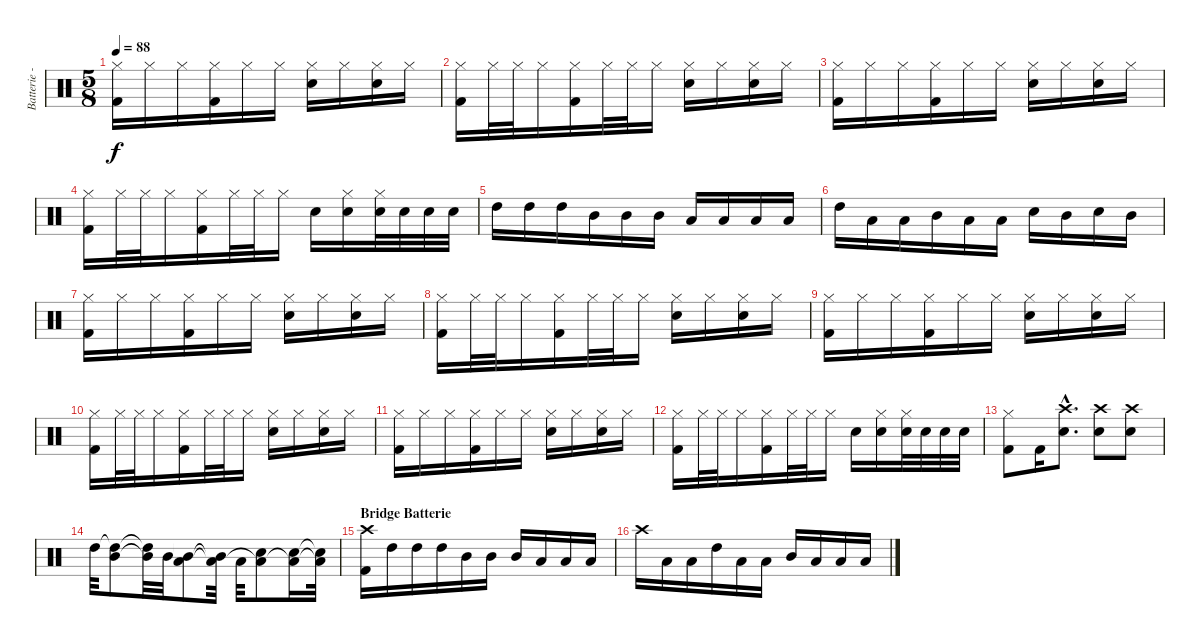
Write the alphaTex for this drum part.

\track ("Batterie - Franz'" "Batterie -") {instrument percussion}
\staff {score}
\articulation defaults
\ts (5 8)
\tempo 88
\clef neutral
\ks c
("Hi-Hat (closed)" "Kick (hit) 2").16{dy f} "Hi-Hat (closed)".16 "Hi-Hat (closed)".16 ("Hi-Hat (closed)" "Kick (hit) 2").16 "Hi-Hat (closed)".16 "Hi-Hat (closed)".16 ("Hi-Hat (closed)" "Electric Snare (hit)").16 "Hi-Hat (closed)".16 ("Hi-Hat (closed)" "Electric Snare (hit)").16 "Hi-Hat (closed)".16 |
("Hi-Hat (closed)" "Kick (hit) 2").16 "Hi-Hat (closed)".32 "Hi-Hat (closed)".32 "Hi-Hat (closed)".16 ("Hi-Hat (closed)" "Kick (hit) 2").16 "Hi-Hat (closed)".32 "Hi-Hat (closed)".32 "Hi-Hat (closed)".16 ("Hi-Hat (closed)" "Electric Snare (hit)").16 "Hi-Hat (closed)".16 ("Hi-Hat (closed)" "Electric Snare (hit)").16 "Hi-Hat (closed)".16 |
("Hi-Hat (closed)" "Kick (hit) 2").16 "Hi-Hat (closed)".16 "Hi-Hat (closed)".16 ("Hi-Hat (closed)" "Kick (hit) 2").16 "Hi-Hat (closed)".16 "Hi-Hat (closed)".16 ("Hi-Hat (closed)" "Electric Snare (hit)").16 "Hi-Hat (closed)".16 ("Hi-Hat (closed)" "Electric Snare (hit)").16 "Hi-Hat (closed)".16 |
("Hi-Hat (closed)" "Kick (hit) 2").16 "Hi-Hat (closed)".32 "Hi-Hat (closed)".32 "Hi-Hat (closed)".16 ("Hi-Hat (closed)" "Kick (hit) 2").16 "Hi-Hat (closed)".32 "Hi-Hat (closed)".32 "Hi-Hat (closed)".16 "Electric Snare (hit)".16 ("Hi-Hat (closed)" "Electric Snare (hit)").16 ("Hi-Hat (closed)" "Electric Snare (hit)").32 "Electric Snare (hit)".32 "Electric Snare (hit)".32 "Electric Snare (hit)".32 |
"High Tom (hit)".16 "High Tom (hit)".16 "High Tom (hit)".16 "Mid Tom (hit)".16 "Mid Tom (hit)".16 "Mid Tom (hit)".16 "Low Tom (hit)".16 "Low Tom (hit)".16 "Low Tom (hit)".16 "Low Tom (hit)".16 |
"High Tom (hit)".16 "Low Tom (hit)".16 "Low Tom (hit)".16 "Mid Tom (hit)".16 "Low Tom (hit)".16 "Low Tom (hit)".16 "Electric Snare (hit)".16 "Mid Tom (hit)".16 "Electric Snare (hit)".16 "Mid Tom (hit)".16 |
("Hi-Hat (closed)" "Kick (hit) 2").16 "Hi-Hat (closed)".16 "Hi-Hat (closed)".16 ("Hi-Hat (closed)" "Kick (hit) 2").16 "Hi-Hat (closed)".16 "Hi-Hat (closed)".16 ("Hi-Hat (closed)" "Electric Snare (hit)").16 "Hi-Hat (closed)".16 ("Hi-Hat (closed)" "Electric Snare (hit)").16 "Hi-Hat (closed)".16 |
("Hi-Hat (closed)" "Kick (hit) 2").16 "Hi-Hat (closed)".32 "Hi-Hat (closed)".32 "Hi-Hat (closed)".16 ("Hi-Hat (closed)" "Kick (hit) 2").16 "Hi-Hat (closed)".32 "Hi-Hat (closed)".32 "Hi-Hat (closed)".16 ("Hi-Hat (closed)" "Electric Snare (hit)").16 "Hi-Hat (closed)".16 ("Hi-Hat (closed)" "Electric Snare (hit)").16 "Hi-Hat (closed)".16 |
("Hi-Hat (closed)" "Kick (hit) 2").16 "Hi-Hat (closed)".16 "Hi-Hat (closed)".16 ("Hi-Hat (closed)" "Kick (hit) 2").16 "Hi-Hat (closed)".16 "Hi-Hat (closed)".16 ("Hi-Hat (closed)" "Electric Snare (hit)").16 "Hi-Hat (closed)".16 ("Hi-Hat (closed)" "Electric Snare (hit)").16 "Hi-Hat (closed)".16 |
("Hi-Hat (closed)" "Kick (hit) 2").16 "Hi-Hat (closed)".32 "Hi-Hat (closed)".32 "Hi-Hat (closed)".16 ("Hi-Hat (closed)" "Kick (hit) 2").16 "Hi-Hat (closed)".32 "Hi-Hat (closed)".32 "Hi-Hat (closed)".16 ("Hi-Hat (closed)" "Electric Snare (hit)").16 "Hi-Hat (closed)".16 ("Hi-Hat (closed)" "Electric Snare (hit)").16 "Hi-Hat (closed)".16 |
("Hi-Hat (closed)" "Kick (hit) 2").16 "Hi-Hat (closed)".16 "Hi-Hat (closed)".16 ("Hi-Hat (closed)" "Kick (hit) 2").16 "Hi-Hat (closed)".16 "Hi-Hat (closed)".16 ("Hi-Hat (closed)" "Electric Snare (hit)").16 "Hi-Hat (closed)".16 ("Hi-Hat (closed)" "Electric Snare (hit)").16 "Hi-Hat (closed)".16 |
("Hi-Hat (closed)" "Kick (hit) 2").16 "Hi-Hat (closed)".32 "Hi-Hat (closed)".32 "Hi-Hat (closed)".16 ("Hi-Hat (closed)" "Kick (hit) 2").16 "Hi-Hat (closed)".32 "Hi-Hat (closed)".32 "Hi-Hat (closed)".16 "Electric Snare (hit)".16 ("Hi-Hat (closed)" "Electric Snare (hit)").16 ("Hi-Hat (closed)" "Electric Snare (hit)").32 "Electric Snare (hit)".32 "Electric Snare (hit)".32 "Electric Snare (hit)".32 |
("Hi-Hat (closed)" "Kick (hit) 2").8 "Kick (hit) 2".16 ("Crash high (hit)"{hac} "Electric Snare (hit)"{hac}).8{d} ("Crash high (hit)" "Electric Snare (hit)").8 ("Crash high (hit)" "Electric Snare (hit)").8 |
"High Tom (hit)".32 ("High Tom (hit)"{t} "Mid Tom (hit)").8 ("High Tom (hit)"{t} "Mid Tom (hit)"{t}).32 "Mid Tom (hit)".32 ("Mid Tom (hit)"{t} "Low Tom (hit)").8 ("Mid Tom (hit)"{t} "Low Tom (hit)"{t}).32 "Low Tom (hit)".32 ("Electric Snare (hit)" "Low Tom (hit)"{t}).8 ("Electric Snare (hit)" "Low Tom (hit)"{t}).16 ("Electric Snare (hit)"{t} "Low Tom (hit)"{t}).32 |
\section ("" "Bridge Batterie")
("Crash high (hit)" "Kick (hit) 2").16 "High Tom (hit)".16 "High Tom (hit)".16 "High Tom (hit)".16 "Mid Tom (hit)".16 "Mid Tom (hit)".16 "Mid Tom (hit)".16 "Low Tom (hit)".16 "Low Tom (hit)".16 "Low Tom (hit)".16 |
"Crash high (hit)".16 "Low Tom (hit)".16 "Low Tom (hit)".16 "High Tom (hit)".16 "Low Tom (hit)".16 "Low Tom (hit)".16 "Mid Tom (hit)".16 "Low Tom (hit)".16 "Low Tom (hit)".16 "Low Tom (hit)".16
